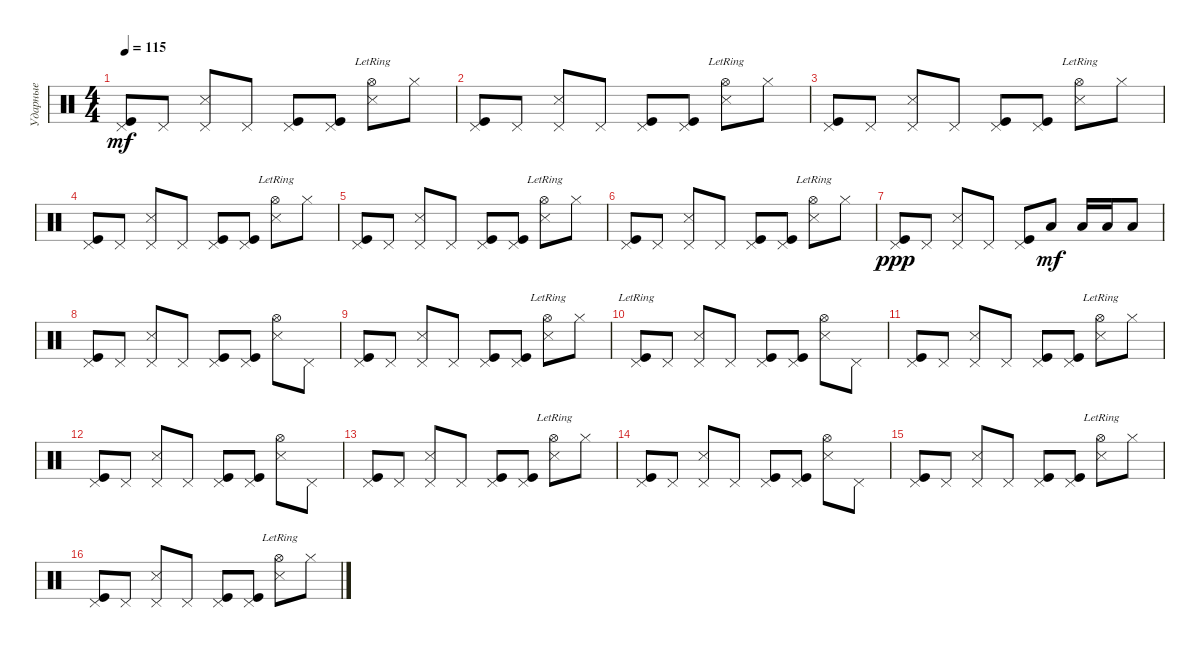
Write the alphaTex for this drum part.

\track ("Ударные" "Ударные") {instrument percussion}
\staff
\articulation defaults
\ts (4 4)
\tempo 115
\clef neutral
\ks c
("Pedal Hi-Hat (hit)" "Kick (hit)").8{dy mf} "Pedal Hi-Hat (hit)".8 ("Pedal Hi-Hat (hit)" "Snare (side stick) 3").8 "Pedal Hi-Hat (hit)".8 ("Pedal Hi-Hat (hit)" "Kick (hit)").8 ("Pedal Hi-Hat (hit)" "Kick (hit)").8 ("Hi-Hat (open)"{lr} "Snare (side stick) 3").8 "Hi-Hat (closed)".8 |
("Pedal Hi-Hat (hit)" "Kick (hit)").8 "Pedal Hi-Hat (hit)".8 ("Pedal Hi-Hat (hit)" "Snare (side stick) 3").8 "Pedal Hi-Hat (hit)".8 ("Pedal Hi-Hat (hit)" "Kick (hit)").8 ("Pedal Hi-Hat (hit)" "Kick (hit)").8 ("Hi-Hat (open)"{lr} "Snare (side stick) 3").8 "Hi-Hat (closed)".8 |
("Pedal Hi-Hat (hit)" "Kick (hit)").8 "Pedal Hi-Hat (hit)".8 ("Pedal Hi-Hat (hit)" "Snare (side stick) 3").8 "Pedal Hi-Hat (hit)".8 ("Pedal Hi-Hat (hit)" "Kick (hit)").8 ("Pedal Hi-Hat (hit)" "Kick (hit)").8 ("Hi-Hat (open)"{lr} "Snare (side stick) 3").8 "Hi-Hat (closed)".8 |
("Pedal Hi-Hat (hit)" "Kick (hit)").8 "Pedal Hi-Hat (hit)".8 ("Pedal Hi-Hat (hit)" "Snare (side stick) 3").8 "Pedal Hi-Hat (hit)".8 ("Pedal Hi-Hat (hit)" "Kick (hit)").8 ("Pedal Hi-Hat (hit)" "Kick (hit)").8 ("Hi-Hat (open)"{lr} "Snare (side stick) 3").8 "Hi-Hat (closed)".8 |
("Pedal Hi-Hat (hit)" "Kick (hit)").8 "Pedal Hi-Hat (hit)".8 ("Pedal Hi-Hat (hit)" "Snare (side stick) 3").8 "Pedal Hi-Hat (hit)".8 ("Pedal Hi-Hat (hit)" "Kick (hit)").8 ("Pedal Hi-Hat (hit)" "Kick (hit)").8 ("Hi-Hat (open)"{lr} "Snare (side stick) 3").8 "Hi-Hat (closed)".8 |
("Pedal Hi-Hat (hit)" "Kick (hit)").8 "Pedal Hi-Hat (hit)".8 ("Pedal Hi-Hat (hit)" "Snare (side stick) 3").8 "Pedal Hi-Hat (hit)".8 ("Pedal Hi-Hat (hit)" "Kick (hit)").8 ("Pedal Hi-Hat (hit)" "Kick (hit)").8 ("Hi-Hat (open)"{lr} "Snare (side stick) 3").8 "Hi-Hat (closed)".8 |
("Pedal Hi-Hat (hit)" "Kick (hit)").8{dy ppp} "Pedal Hi-Hat (hit)".8 ("Pedal Hi-Hat (hit)" "Snare (side stick) 3").8 "Pedal Hi-Hat (hit)".8 ("Pedal Hi-Hat (hit)" "Kick (hit)").8 "Low Tom (hit)".8{dy mf} "Low Tom (hit)".16 "Low Tom (hit)".16 "Low Tom (hit)".8 |
("Pedal Hi-Hat (hit)" "Kick (hit)").8 "Pedal Hi-Hat (hit)".8 ("Pedal Hi-Hat (hit)" "Snare (side stick) 3").8 "Pedal Hi-Hat (hit)".8 ("Pedal Hi-Hat (hit)" "Kick (hit)").8 ("Pedal Hi-Hat (hit)" "Kick (hit)").8 ("Hi-Hat (open)" "Snare (side stick) 3").8 "Pedal Hi-Hat (hit)".8 |
("Pedal Hi-Hat (hit)" "Kick (hit)").8 "Pedal Hi-Hat (hit)".8 ("Pedal Hi-Hat (hit)" "Snare (side stick) 3").8 "Pedal Hi-Hat (hit)".8 ("Pedal Hi-Hat (hit)" "Kick (hit)").8 ("Pedal Hi-Hat (hit)" "Kick (hit)").8 ("Hi-Hat (open)"{lr} "Snare (side stick) 3").8 "Hi-Hat (closed)".8 |
("Pedal Hi-Hat (hit)"{lr} "Kick (hit)").8 "Pedal Hi-Hat (hit)".8 ("Pedal Hi-Hat (hit)" "Snare (side stick) 3").8 "Pedal Hi-Hat (hit)".8 ("Pedal Hi-Hat (hit)" "Kick (hit)").8 ("Pedal Hi-Hat (hit)" "Kick (hit)").8 ("Hi-Hat (open)" "Snare (side stick) 3").8 "Pedal Hi-Hat (hit)".8 |
("Pedal Hi-Hat (hit)" "Kick (hit)").8 "Pedal Hi-Hat (hit)".8 ("Pedal Hi-Hat (hit)" "Snare (side stick) 3").8 "Pedal Hi-Hat (hit)".8 ("Pedal Hi-Hat (hit)" "Kick (hit)").8 ("Pedal Hi-Hat (hit)" "Kick (hit)").8 ("Hi-Hat (open)"{lr} "Snare (side stick) 3").8 "Hi-Hat (closed)".8 |
("Pedal Hi-Hat (hit)" "Kick (hit)").8 "Pedal Hi-Hat (hit)".8 ("Pedal Hi-Hat (hit)" "Snare (side stick) 3").8 "Pedal Hi-Hat (hit)".8 ("Pedal Hi-Hat (hit)" "Kick (hit)").8 ("Pedal Hi-Hat (hit)" "Kick (hit)").8 ("Hi-Hat (open)" "Snare (side stick) 3").8 "Pedal Hi-Hat (hit)".8 |
("Pedal Hi-Hat (hit)" "Kick (hit)").8 "Pedal Hi-Hat (hit)".8 ("Pedal Hi-Hat (hit)" "Snare (side stick) 3").8 "Pedal Hi-Hat (hit)".8 ("Pedal Hi-Hat (hit)" "Kick (hit)").8 ("Pedal Hi-Hat (hit)" "Kick (hit)").8 ("Hi-Hat (open)"{lr} "Snare (side stick) 3").8 "Hi-Hat (closed)".8 |
("Pedal Hi-Hat (hit)" "Kick (hit)").8 "Pedal Hi-Hat (hit)".8 ("Pedal Hi-Hat (hit)" "Snare (side stick) 3").8 "Pedal Hi-Hat (hit)".8 ("Pedal Hi-Hat (hit)" "Kick (hit)").8 ("Pedal Hi-Hat (hit)" "Kick (hit)").8 ("Hi-Hat (open)" "Snare (side stick) 3").8 "Pedal Hi-Hat (hit)".8 |
("Pedal Hi-Hat (hit)" "Kick (hit)").8 "Pedal Hi-Hat (hit)".8 ("Pedal Hi-Hat (hit)" "Snare (side stick) 3").8 "Pedal Hi-Hat (hit)".8 ("Pedal Hi-Hat (hit)" "Kick (hit)").8 ("Pedal Hi-Hat (hit)" "Kick (hit)").8 ("Hi-Hat (open)"{lr} "Snare (side stick) 3").8 "Hi-Hat (closed)".8 |
("Pedal Hi-Hat (hit)" "Kick (hit)").8 "Pedal Hi-Hat (hit)".8 ("Pedal Hi-Hat (hit)" "Snare (side stick) 3").8 "Pedal Hi-Hat (hit)".8 ("Pedal Hi-Hat (hit)" "Kick (hit)").8 ("Pedal Hi-Hat (hit)" "Kick (hit)").8 ("Hi-Hat (open)"{lr} "Snare (side stick) 3").8 "Hi-Hat (closed)".8
